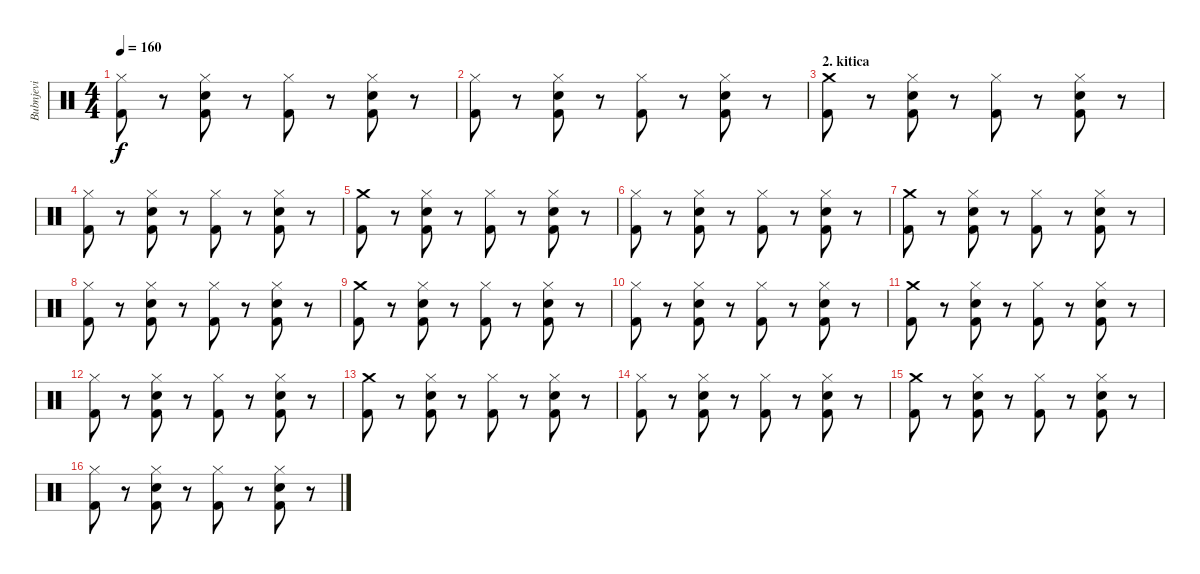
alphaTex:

\track ("Bubnjevi" "Bubnjevi") {instrument percussion}
\staff {score}
\articulation defaults
\ts (4 4)
\tempo 160
\clef neutral
\ks c
("Hi-Hat (closed)" "Kick (hit) 2").8{dy f} r.8 ("Electric Snare (hit)" "Hi-Hat (closed)" "Kick (hit) 2").8 r.8 ("Hi-Hat (closed)" "Kick (hit) 2").8 r.8 ("Electric Snare (hit)" "Hi-Hat (closed)" "Kick (hit) 2").8 r.8 |
("Hi-Hat (closed)" "Kick (hit) 2").8 r.8 ("Electric Snare (hit)" "Hi-Hat (closed)" "Kick (hit) 2").8 r.8 ("Hi-Hat (closed)" "Kick (hit) 2").8 r.8 ("Electric Snare (hit)" "Hi-Hat (closed)" "Kick (hit) 2").8 r.8 |
\section ("" "2. kitica")
("Crash medium (hit)" "Kick (hit) 2").8 r.8 ("Electric Snare (hit)" "Hi-Hat (closed)" "Kick (hit) 2").8 r.8 ("Hi-Hat (closed)" "Kick (hit) 2").8 r.8 ("Electric Snare (hit)" "Hi-Hat (closed)" "Kick (hit) 2").8 r.8 |
("Hi-Hat (closed)" "Kick (hit) 2").8 r.8 ("Electric Snare (hit)" "Hi-Hat (closed)" "Kick (hit) 2").8 r.8 ("Hi-Hat (closed)" "Kick (hit) 2").8 r.8 ("Electric Snare (hit)" "Hi-Hat (closed)" "Kick (hit) 2").8 r.8 |
("Crash medium (hit)" "Kick (hit) 2").8 r.8 ("Electric Snare (hit)" "Hi-Hat (closed)" "Kick (hit) 2").8 r.8 ("Hi-Hat (closed)" "Kick (hit) 2").8 r.8 ("Electric Snare (hit)" "Hi-Hat (closed)" "Kick (hit) 2").8 r.8 |
("Hi-Hat (closed)" "Kick (hit) 2").8 r.8 ("Electric Snare (hit)" "Hi-Hat (closed)" "Kick (hit) 2").8 r.8 ("Hi-Hat (closed)" "Kick (hit) 2").8 r.8 ("Electric Snare (hit)" "Hi-Hat (closed)" "Kick (hit) 2").8 r.8 |
("Crash medium (hit)" "Kick (hit) 2").8 r.8 ("Electric Snare (hit)" "Hi-Hat (closed)" "Kick (hit) 2").8 r.8 ("Hi-Hat (closed)" "Kick (hit) 2").8 r.8 ("Electric Snare (hit)" "Hi-Hat (closed)" "Kick (hit) 2").8 r.8 |
("Hi-Hat (closed)" "Kick (hit) 2").8 r.8 ("Electric Snare (hit)" "Hi-Hat (closed)" "Kick (hit) 2").8 r.8 ("Hi-Hat (closed)" "Kick (hit) 2").8 r.8 ("Electric Snare (hit)" "Hi-Hat (closed)" "Kick (hit) 2").8 r.8 |
("Crash medium (hit)" "Kick (hit) 2").8 r.8 ("Electric Snare (hit)" "Hi-Hat (closed)" "Kick (hit) 2").8 r.8 ("Hi-Hat (closed)" "Kick (hit) 2").8 r.8 ("Electric Snare (hit)" "Hi-Hat (closed)" "Kick (hit) 2").8 r.8 |
("Hi-Hat (closed)" "Kick (hit) 2").8 r.8 ("Electric Snare (hit)" "Hi-Hat (closed)" "Kick (hit) 2").8 r.8 ("Hi-Hat (closed)" "Kick (hit) 2").8 r.8 ("Electric Snare (hit)" "Hi-Hat (closed)" "Kick (hit) 2").8 r.8 |
("Crash medium (hit)" "Kick (hit) 2").8 r.8 ("Electric Snare (hit)" "Hi-Hat (closed)" "Kick (hit) 2").8 r.8 ("Hi-Hat (closed)" "Kick (hit) 2").8 r.8 ("Electric Snare (hit)" "Hi-Hat (closed)" "Kick (hit) 2").8 r.8 |
("Hi-Hat (closed)" "Kick (hit) 2").8 r.8 ("Electric Snare (hit)" "Hi-Hat (closed)" "Kick (hit) 2").8 r.8 ("Hi-Hat (closed)" "Kick (hit) 2").8 r.8 ("Electric Snare (hit)" "Hi-Hat (closed)" "Kick (hit) 2").8 r.8 |
("Crash medium (hit)" "Kick (hit) 2").8 r.8 ("Electric Snare (hit)" "Hi-Hat (closed)" "Kick (hit) 2").8 r.8 ("Hi-Hat (closed)" "Kick (hit) 2").8 r.8 ("Electric Snare (hit)" "Hi-Hat (closed)" "Kick (hit) 2").8 r.8 |
("Hi-Hat (closed)" "Kick (hit) 2").8 r.8 ("Electric Snare (hit)" "Hi-Hat (closed)" "Kick (hit) 2").8 r.8 ("Hi-Hat (closed)" "Kick (hit) 2").8 r.8 ("Electric Snare (hit)" "Hi-Hat (closed)" "Kick (hit) 2").8 r.8 |
("Crash medium (hit)" "Kick (hit) 2").8 r.8 ("Electric Snare (hit)" "Hi-Hat (closed)" "Kick (hit) 2").8 r.8 ("Hi-Hat (closed)" "Kick (hit) 2").8 r.8 ("Electric Snare (hit)" "Hi-Hat (closed)" "Kick (hit) 2").8 r.8 |
("Hi-Hat (closed)" "Kick (hit) 2").8 r.8 ("Electric Snare (hit)" "Hi-Hat (closed)" "Kick (hit) 2").8 r.8 ("Hi-Hat (closed)" "Kick (hit) 2").8 r.8 ("Electric Snare (hit)" "Hi-Hat (closed)" "Kick (hit) 2").8 r.8
